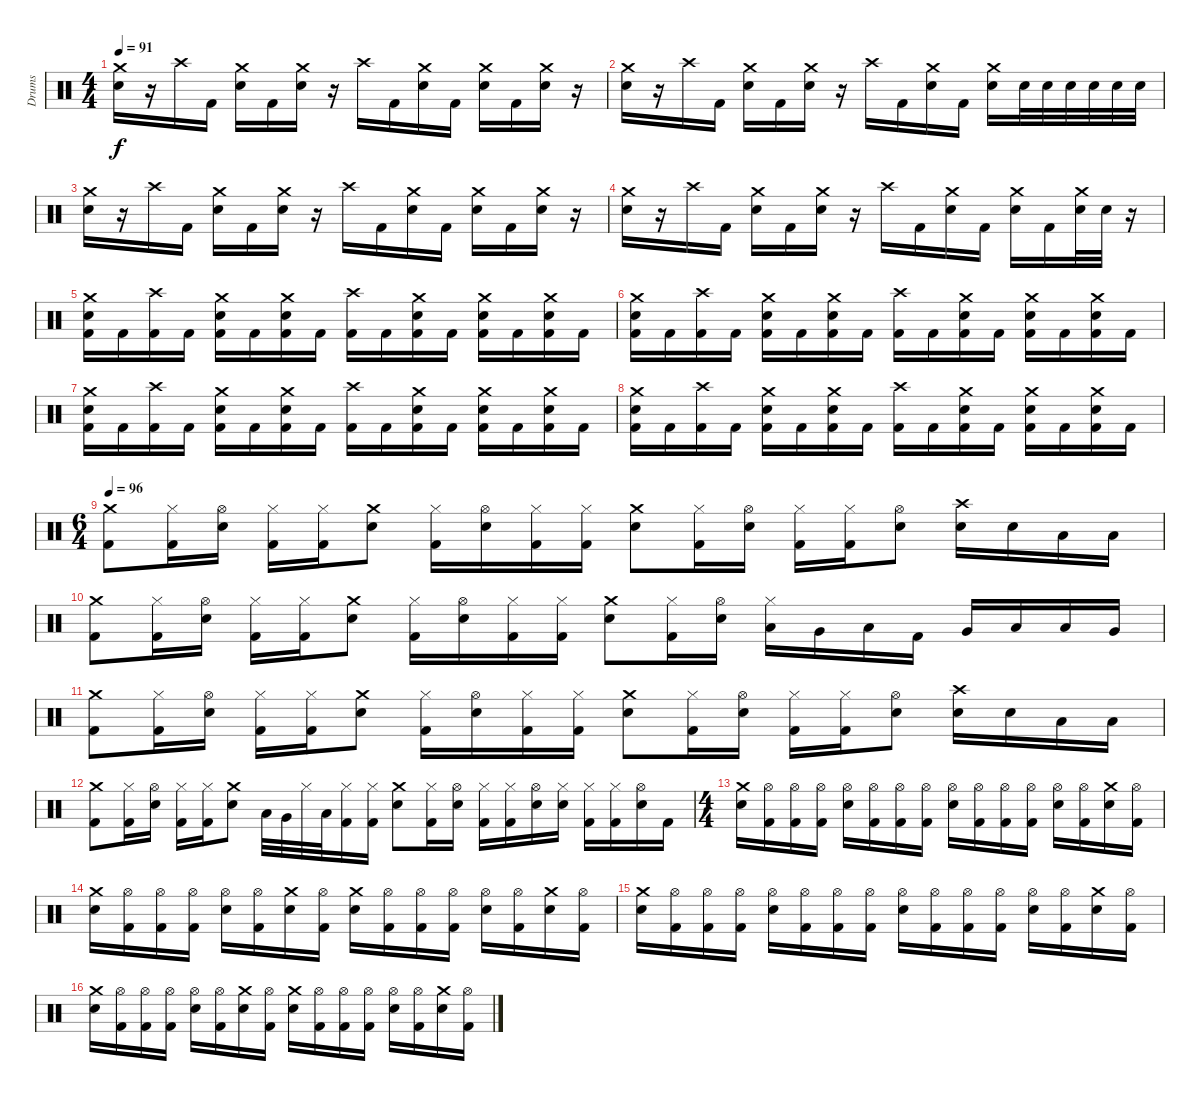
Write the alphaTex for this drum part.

\track ("Drums" "Drums") {instrument percussion}
\staff {score}
\articulation defaults
\ts (4 4)
\tempo 91
\clef neutral
\ks c
("Crash medium (hit)" "Electric Snare (hit)").16{dy f} r.16 "Crash high (hit)".16 "Kick (hit) 2".16 ("Crash medium (hit)" "Electric Snare (hit)").16 "Kick (hit) 2".16 ("Crash medium (hit)" "Electric Snare (hit)").16 r.16 "Crash high (hit)".16 "Kick (hit) 2".16 ("Crash medium (hit)" "Electric Snare (hit)").16 "Kick (hit) 2".16 ("Crash medium (hit)" "Electric Snare (hit)").16 "Kick (hit) 2".16 ("Crash medium (hit)" "Electric Snare (hit)").16 r.16 |
("Crash medium (hit)" "Electric Snare (hit)").16 r.16 "Crash high (hit)".16 "Kick (hit) 2".16 ("Crash medium (hit)" "Electric Snare (hit)").16 "Kick (hit) 2".16 ("Crash medium (hit)" "Electric Snare (hit)").16 r.16 "Crash high (hit)".16 "Kick (hit) 2".16 ("Crash medium (hit)" "Electric Snare (hit)").16 "Kick (hit) 2".16 ("Crash medium (hit)" "Electric Snare (hit)").16 "Electric Snare (hit)".32 "Electric Snare (hit)".32 "Electric Snare (hit)".32 "Electric Snare (hit)".32 "Electric Snare (hit)".32 "Electric Snare (hit)".32 |
("Crash medium (hit)" "Electric Snare (hit)").16 r.16 "Crash high (hit)".16 "Kick (hit) 2".16 ("Crash medium (hit)" "Electric Snare (hit)").16 "Kick (hit) 2".16 ("Crash medium (hit)" "Electric Snare (hit)").16 r.16 "Crash high (hit)".16 "Kick (hit) 2".16 ("Crash medium (hit)" "Electric Snare (hit)").16 "Kick (hit) 2".16 ("Crash medium (hit)" "Electric Snare (hit)").16 "Kick (hit) 2".16 ("Crash medium (hit)" "Electric Snare (hit)").16 r.16 |
("Crash medium (hit)" "Electric Snare (hit)").16 r.16 "Crash high (hit)".16 "Kick (hit) 2".16 ("Crash medium (hit)" "Electric Snare (hit)").16 "Kick (hit) 2".16 ("Crash medium (hit)" "Electric Snare (hit)").16 r.16 "Crash high (hit)".16 "Kick (hit) 2".16 ("Crash medium (hit)" "Electric Snare (hit)").16 "Kick (hit) 2".16 ("Crash medium (hit)" "Electric Snare (hit)").16 "Kick (hit) 2".16 ("Crash medium (hit)" "Electric Snare (hit)").32 "Electric Snare (hit)".32 r.16 |
("Crash medium (hit)" "Electric Snare (hit)" "Kick (hit) 2").16 "Kick (hit) 2".16 ("Crash high (hit)" "Kick (hit) 2").16 "Kick (hit) 2".16 ("Crash medium (hit)" "Electric Snare (hit)" "Kick (hit) 2").16 "Kick (hit) 2".16 ("Crash medium (hit)" "Electric Snare (hit)" "Kick (hit) 2").16 "Kick (hit) 2".16 ("Crash high (hit)" "Kick (hit) 2").16 "Kick (hit) 2".16 ("Crash medium (hit)" "Electric Snare (hit)" "Kick (hit) 2").16 "Kick (hit) 2".16 ("Crash medium (hit)" "Electric Snare (hit)" "Kick (hit) 2").16 "Kick (hit) 2".16 ("Crash medium (hit)" "Electric Snare (hit)" "Kick (hit) 2").16 "Kick (hit) 2".16 |
("Crash medium (hit)" "Electric Snare (hit)" "Kick (hit) 2").16 "Kick (hit) 2".16 ("Crash high (hit)" "Kick (hit) 2").16 "Kick (hit) 2".16 ("Crash medium (hit)" "Electric Snare (hit)" "Kick (hit) 2").16 "Kick (hit) 2".16 ("Crash medium (hit)" "Electric Snare (hit)" "Kick (hit) 2").16 "Kick (hit) 2".16 ("Crash high (hit)" "Kick (hit) 2").16 "Kick (hit) 2".16 ("Crash medium (hit)" "Electric Snare (hit)" "Kick (hit) 2").16 "Kick (hit) 2".16 ("Crash medium (hit)" "Electric Snare (hit)" "Kick (hit) 2").16 "Kick (hit) 2".16 ("Crash medium (hit)" "Electric Snare (hit)" "Kick (hit) 2").16 "Kick (hit) 2".16 |
("Crash medium (hit)" "Electric Snare (hit)" "Kick (hit) 2").16 "Kick (hit) 2".16 ("Crash high (hit)" "Kick (hit) 2").16 "Kick (hit) 2".16 ("Crash medium (hit)" "Electric Snare (hit)" "Kick (hit) 2").16 "Kick (hit) 2".16 ("Crash medium (hit)" "Electric Snare (hit)" "Kick (hit) 2").16 "Kick (hit) 2".16 ("Crash high (hit)" "Kick (hit) 2").16 "Kick (hit) 2".16 ("Crash medium (hit)" "Electric Snare (hit)" "Kick (hit) 2").16 "Kick (hit) 2".16 ("Crash medium (hit)" "Electric Snare (hit)" "Kick (hit) 2").16 "Kick (hit) 2".16 ("Crash medium (hit)" "Electric Snare (hit)" "Kick (hit) 2").16 "Kick (hit) 2".16 |
("Crash medium (hit)" "Electric Snare (hit)" "Kick (hit) 2").16 "Kick (hit) 2".16 ("Crash high (hit)" "Kick (hit) 2").16 "Kick (hit) 2".16 ("Crash medium (hit)" "Electric Snare (hit)" "Kick (hit) 2").16 "Kick (hit) 2".16 ("Crash medium (hit)" "Electric Snare (hit)" "Kick (hit) 2").16 "Kick (hit) 2".16 ("Crash high (hit)" "Kick (hit) 2").16 "Kick (hit) 2".16 ("Crash medium (hit)" "Electric Snare (hit)" "Kick (hit) 2").16 "Kick (hit) 2".16 ("Crash medium (hit)" "Electric Snare (hit)" "Kick (hit) 2").16 "Kick (hit) 2".16 ("Crash medium (hit)" "Electric Snare (hit)" "Kick (hit) 2").16 "Kick (hit) 2".16 |
\ts (6 4)
\tempo 96
("Crash medium (hit)" "Kick (hit) 2").8 ("Hi-Hat (closed)" "Kick (hit) 2").16 ("Hi-Hat (open)" "Electric Snare (hit)").16 ("Hi-Hat (closed)" "Kick (hit) 2").16 ("Hi-Hat (closed)" "Kick (hit) 2").16 ("Crash medium (hit)" "Electric Snare (hit)").8 ("Hi-Hat (closed)" "Kick (hit) 2").16 ("Hi-Hat (open)" "Electric Snare (hit)").16 ("Hi-Hat (closed)" "Kick (hit) 2").16 ("Hi-Hat (closed)" "Kick (hit) 2").16 ("Crash medium (hit)" "Electric Snare (hit)").8 ("Hi-Hat (closed)" "Kick (hit) 2").16 ("Hi-Hat (open)" "Electric Snare (hit)").16 ("Hi-Hat (closed)" "Kick (hit) 2").16 ("Hi-Hat (closed)" "Kick (hit) 2").16 ("Hi-Hat (open)" "Electric Snare (hit)").8 ("Crash high (hit)" "Electric Snare (hit)").16 "Electric Snare (hit)".16 "Low Tom (hit)".16 "Low Tom (hit)".16 |
("Crash medium (hit)" "Kick (hit) 2").8 ("Hi-Hat (closed)" "Kick (hit) 2").16 ("Hi-Hat (open)" "Electric Snare (hit)").16 ("Hi-Hat (closed)" "Kick (hit) 2").16 ("Hi-Hat (closed)" "Kick (hit) 2").16 ("Crash medium (hit)" "Electric Snare (hit)").8 ("Hi-Hat (closed)" "Kick (hit) 2").16 ("Hi-Hat (open)" "Electric Snare (hit)").16 ("Hi-Hat (closed)" "Kick (hit) 2").16 ("Hi-Hat (closed)" "Kick (hit) 2").16 ("Crash medium (hit)" "Electric Snare (hit)").8 ("Hi-Hat (closed)" "Kick (hit) 2").16 ("Hi-Hat (open)" "Electric Snare (hit)").16 ("Hi-Hat (closed)" "Low Tom (hit)").16 "Very Low Tom (hit)".16 "Low Floor Tom (hit)".16 "Kick (hit) 2".16 "Very Low Tom (hit)".16 "Low Tom (hit)".16 "Low Tom (hit)".16 "Very Low Tom (hit)".16 |
("Crash medium (hit)" "Kick (hit) 2").8 ("Hi-Hat (closed)" "Kick (hit) 2").16 ("Hi-Hat (open)" "Electric Snare (hit)").16 ("Hi-Hat (closed)" "Kick (hit) 2").16 ("Hi-Hat (closed)" "Kick (hit) 2").16 ("Crash medium (hit)" "Electric Snare (hit)").8 ("Hi-Hat (closed)" "Kick (hit) 2").16 ("Hi-Hat (open)" "Electric Snare (hit)").16 ("Hi-Hat (closed)" "Kick (hit) 2").16 ("Hi-Hat (closed)" "Kick (hit) 2").16 ("Crash medium (hit)" "Electric Snare (hit)").8 ("Hi-Hat (closed)" "Kick (hit) 2").16 ("Hi-Hat (open)" "Electric Snare (hit)").16 ("Hi-Hat (closed)" "Kick (hit) 2").16 ("Hi-Hat (closed)" "Kick (hit) 2").16 ("Hi-Hat (open)" "Electric Snare (hit)").8 ("Crash high (hit)" "Electric Snare (hit)").16 "Electric Snare (hit)".16 "Low Tom (hit)".16 "Low Tom (hit)".16 |
("Crash medium (hit)" "Kick (hit) 2").8 ("Hi-Hat (closed)" "Kick (hit) 2").16 ("Hi-Hat (open)" "Electric Snare (hit)").16 ("Hi-Hat (closed)" "Kick (hit) 2").16 ("Hi-Hat (closed)" "Kick (hit) 2").16 ("Crash medium (hit)" "Electric Snare (hit)").8 "Low Tom (hit)".32 "Very Low Tom (hit)".32 "Hi-Hat (closed)".32 "Low Floor Tom (hit)".32 ("Hi-Hat (closed)" "Kick (hit) 2").16 ("Hi-Hat (closed)" "Kick (hit) 2").16 ("Crash medium (hit)" "Electric Snare (hit)").8 ("Hi-Hat (closed)" "Kick (hit) 2").16 ("Hi-Hat (open)" "Electric Snare (hit)").16 ("Hi-Hat (closed)" "Kick (hit) 2").16 ("Hi-Hat (closed)" "Kick (hit) 2").16 ("Hi-Hat (open)" "Electric Snare (hit)").16 ("Hi-Hat (closed)" "Electric Snare (hit)").16 ("Hi-Hat (closed)" "Kick (hit) 2").16 ("Hi-Hat (closed)" "Kick (hit) 2").16 ("Hi-Hat (open)" "Electric Snare (hit)").16 "Kick (hit) 2".16 |
\ts (4 4)
("Crash medium (hit)" "Electric Snare (hit)").16 ("Hi-Hat (open)" "Kick (hit) 2").16 ("Hi-Hat (open)" "Kick (hit) 2").16 ("Hi-Hat (open)" "Kick (hit) 2").16 ("Hi-Hat (open)" "Electric Snare (hit)").16 ("Hi-Hat (open)" "Kick (hit) 2").16 ("Hi-Hat (open)" "Kick (hit) 2").16 ("Hi-Hat (open)" "Kick (hit) 2").16 ("Hi-Hat (open)" "Electric Snare (hit)").16 ("Hi-Hat (open)" "Kick (hit) 2").16 ("Hi-Hat (open)" "Kick (hit) 2").16 ("Hi-Hat (open)" "Kick (hit) 2").16 ("Hi-Hat (open)" "Electric Snare (hit)").16 ("Hi-Hat (open)" "Kick (hit) 2").16 ("Crash medium (hit)" "Electric Snare (hit)").16 ("Hi-Hat (open)" "Kick (hit) 2").16 |
("Crash medium (hit)" "Electric Snare (hit)").16 ("Hi-Hat (open)" "Kick (hit) 2").16 ("Hi-Hat (open)" "Kick (hit) 2").16 ("Hi-Hat (open)" "Kick (hit) 2").16 ("Hi-Hat (open)" "Electric Snare (hit)").16 ("Hi-Hat (open)" "Kick (hit) 2").16 ("Crash medium (hit)" "Electric Snare (hit)").16 ("Hi-Hat (open)" "Kick (hit) 2").16 ("Crash medium (hit)" "Electric Snare (hit)").16 ("Hi-Hat (open)" "Kick (hit) 2").16 ("Hi-Hat (open)" "Kick (hit) 2").16 ("Hi-Hat (open)" "Kick (hit) 2").16 ("Hi-Hat (open)" "Electric Snare (hit)").16 ("Hi-Hat (open)" "Kick (hit) 2").16 ("Crash medium (hit)" "Electric Snare (hit)").16 ("Hi-Hat (open)" "Kick (hit) 2").16 |
("Crash medium (hit)" "Electric Snare (hit)").16 ("Hi-Hat (open)" "Kick (hit) 2").16 ("Hi-Hat (open)" "Kick (hit) 2").16 ("Hi-Hat (open)" "Kick (hit) 2").16 ("Hi-Hat (open)" "Electric Snare (hit)").16 ("Hi-Hat (open)" "Kick (hit) 2").16 ("Hi-Hat (open)" "Kick (hit) 2").16 ("Hi-Hat (open)" "Kick (hit) 2").16 ("Hi-Hat (open)" "Electric Snare (hit)").16 ("Hi-Hat (open)" "Kick (hit) 2").16 ("Hi-Hat (open)" "Kick (hit) 2").16 ("Hi-Hat (open)" "Kick (hit) 2").16 ("Hi-Hat (open)" "Electric Snare (hit)").16 ("Hi-Hat (open)" "Kick (hit) 2").16 ("Crash medium (hit)" "Electric Snare (hit)").16 ("Hi-Hat (open)" "Kick (hit) 2").16 |
("Crash medium (hit)" "Electric Snare (hit)").16 ("Hi-Hat (open)" "Kick (hit) 2").16 ("Hi-Hat (open)" "Kick (hit) 2").16 ("Hi-Hat (open)" "Kick (hit) 2").16 ("Hi-Hat (open)" "Electric Snare (hit)").16 ("Hi-Hat (open)" "Kick (hit) 2").16 ("Crash medium (hit)" "Electric Snare (hit)").16 ("Hi-Hat (open)" "Kick (hit) 2").16 ("Crash medium (hit)" "Electric Snare (hit)").16 ("Hi-Hat (open)" "Kick (hit) 2").16 ("Hi-Hat (open)" "Kick (hit) 2").16 ("Hi-Hat (open)" "Kick (hit) 2").16 ("Hi-Hat (open)" "Electric Snare (hit)").16 ("Hi-Hat (open)" "Kick (hit) 2").16 ("Crash medium (hit)" "Electric Snare (hit)").16 ("Hi-Hat (open)" "Kick (hit) 2").16
